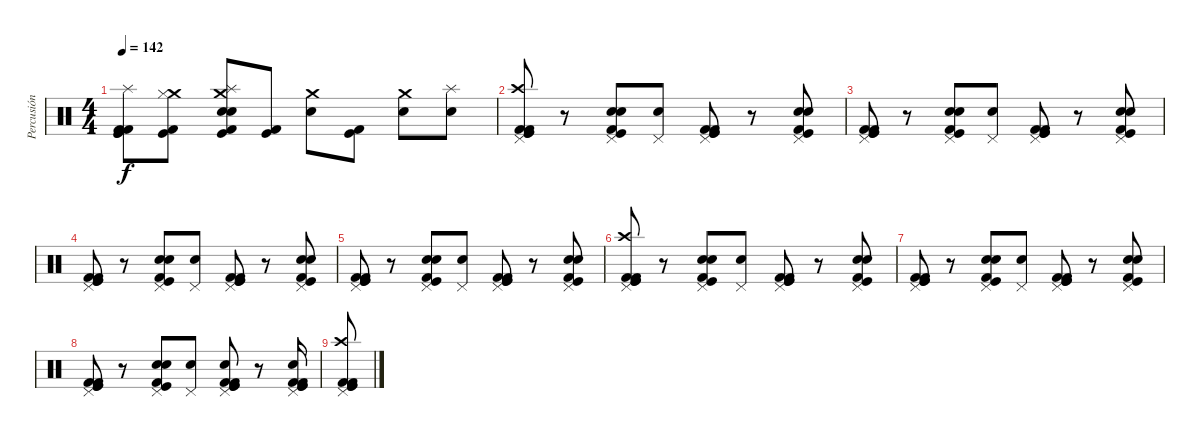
\track ("Percusión" "Percusión") {instrument percussion}
\staff {score}
\articulation defaults
\ts (4 4)
\tempo 142
\clef neutral
\ks c
("Kick (hit) 2" "Kick (hit)" "Splash (hit)" "Kick (hit) 2" "Kick (hit)").8{dy f} ("Crash medium (hit)" "Hi-Hat (closed)" "Kick (hit) 2" "Kick (hit)").8 ("Snare (hit) 2" "Crash medium (hit)" "Splash (hit)" "Electric Snare (hit)" "Kick (hit)" "Kick (hit) 2").8 ("Kick (hit) 2" "Kick (hit)").8 ("Snare (hit) 2" "Crash medium (hit)").8 ("Kick (hit) 2" "Kick (hit)").8 ("Snare (hit) 2" "Crash medium (hit)").8 ("Electric Snare (hit)" "Splash (hit)").8 |
("Kick (hit) 2" "Kick (hit)" "Crash high (hit)" "Pedal Hi-Hat (hit)" "Kick (hit) 2" "Kick (hit)").8 r.8 ("Snare (hit) 2" "Pedal Hi-Hat (hit)" "Electric Snare (hit)" "Kick (hit)" "Kick (hit) 2").8 ("Pedal Hi-Hat (hit)" "Electric Snare (hit)").8 ("Kick (hit) 2" "Kick (hit)" "Pedal Hi-Hat (hit)" "Kick (hit) 2" "Kick (hit)").8 r.8 ("Snare (hit) 2" "Pedal Hi-Hat (hit)" "Electric Snare (hit)" "Kick (hit)" "Kick (hit) 2").8 |
("Kick (hit) 2" "Kick (hit)" "Pedal Hi-Hat (hit)" "Kick (hit) 2" "Kick (hit)").8 r.8 ("Snare (hit) 2" "Pedal Hi-Hat (hit)" "Electric Snare (hit)" "Kick (hit)" "Kick (hit) 2").8 ("Pedal Hi-Hat (hit)" "Electric Snare (hit)").8 ("Kick (hit) 2" "Kick (hit)" "Pedal Hi-Hat (hit)" "Kick (hit) 2" "Kick (hit)").8 r.8 ("Snare (hit) 2" "Pedal Hi-Hat (hit)" "Electric Snare (hit)" "Kick (hit)" "Kick (hit) 2").8 |
("Kick (hit) 2" "Kick (hit)" "Pedal Hi-Hat (hit)" "Kick (hit) 2" "Kick (hit)").8 r.8 ("Snare (hit) 2" "Pedal Hi-Hat (hit)" "Electric Snare (hit)" "Kick (hit)" "Kick (hit) 2").8 ("Pedal Hi-Hat (hit)" "Electric Snare (hit)").8 ("Kick (hit) 2" "Kick (hit)" "Pedal Hi-Hat (hit)" "Kick (hit) 2" "Kick (hit)").8 r.8 ("Snare (hit) 2" "Pedal Hi-Hat (hit)" "Electric Snare (hit)" "Kick (hit)" "Kick (hit) 2").8 |
("Kick (hit) 2" "Kick (hit)" "Pedal Hi-Hat (hit)" "Kick (hit) 2" "Kick (hit)").8 r.8 ("Snare (hit) 2" "Pedal Hi-Hat (hit)" "Electric Snare (hit)" "Kick (hit)" "Kick (hit) 2").8 ("Pedal Hi-Hat (hit)" "Electric Snare (hit)").8 ("Kick (hit) 2" "Kick (hit)" "Pedal Hi-Hat (hit)" "Kick (hit) 2" "Kick (hit)").8 r.8 ("Snare (hit) 2" "Pedal Hi-Hat (hit)" "Electric Snare (hit)" "Kick (hit)" "Kick (hit) 2").8 |
("Kick (hit) 2" "Kick (hit)" "Crash high (hit)" "Pedal Hi-Hat (hit)" "Kick (hit) 2" "Kick (hit)").8 r.8 ("Snare (hit) 2" "Pedal Hi-Hat (hit)" "Electric Snare (hit)" "Kick (hit)" "Kick (hit) 2").8 ("Pedal Hi-Hat (hit)" "Electric Snare (hit)").8 ("Kick (hit) 2" "Kick (hit)" "Pedal Hi-Hat (hit)" "Kick (hit) 2" "Kick (hit)").8 r.8 ("Snare (hit) 2" "Pedal Hi-Hat (hit)" "Electric Snare (hit)" "Kick (hit)" "Kick (hit) 2").8 |
("Kick (hit) 2" "Kick (hit)" "Pedal Hi-Hat (hit)" "Kick (hit) 2" "Kick (hit)").8 r.8 ("Snare (hit) 2" "Pedal Hi-Hat (hit)" "Electric Snare (hit)" "Kick (hit)" "Kick (hit) 2").8 ("Pedal Hi-Hat (hit)" "Electric Snare (hit)").8 ("Kick (hit) 2" "Kick (hit)" "Pedal Hi-Hat (hit)" "Kick (hit) 2" "Kick (hit)").8 r.8 ("Snare (hit) 2" "Pedal Hi-Hat (hit)" "Electric Snare (hit)" "Kick (hit)" "Kick (hit) 2").8 |
("Kick (hit) 2" "Kick (hit)" "Pedal Hi-Hat (hit)" "Kick (hit) 2" "Kick (hit)").8 r.8 ("Snare (hit) 2" "Pedal Hi-Hat (hit)" "Electric Snare (hit)" "Kick (hit)" "Kick (hit) 2").8 ("Pedal Hi-Hat (hit)" "Electric Snare (hit)").8 ("Kick (hit) 2" "Kick (hit)" "Pedal Hi-Hat (hit)" "Snare (hit) 2" "Kick (hit) 2" "Kick (hit)").8 r.8 ("Kick (hit) 2" "Kick (hit)" "Pedal Hi-Hat (hit)" "Snare (hit) 2" "Kick (hit) 2" "Kick (hit)").16 |
("Kick (hit) 2" "Kick (hit)" "Crash high (hit)" "Pedal Hi-Hat (hit)" "Kick (hit) 2" "Kick (hit)").8
